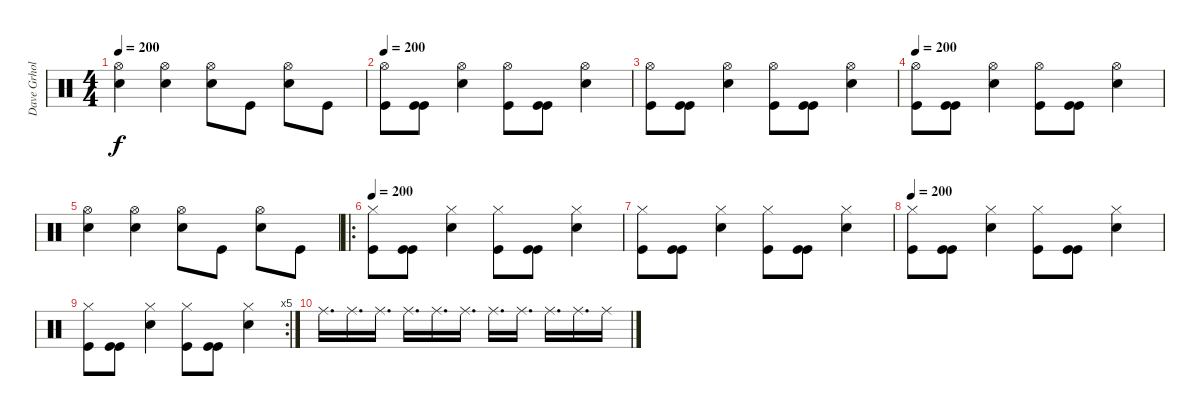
\track ("Dave Grhol" "Dave Grhol") {instrument percussion}
\staff {score}
\articulation defaults
\ts (4 4)
\tempo 200
\clef neutral
\ks c
("Hi-Hat (open)" "Snare (hit) 2").4{dy f} ("Hi-Hat (open)" "Snare (hit) 2").4 ("Hi-Hat (open)" "Snare (hit) 2").8 "Kick (hit)".8 ("Hi-Hat (open)" "Snare (hit) 2").8 "Kick (hit)".8 |
\tempo 200
("Hi-Hat (open)" "Kick (hit)").8 ("Kick (hit)" "Kick (hit)").8 ("Hi-Hat (open)" "Snare (hit) 2").4 ("Hi-Hat (open)" "Kick (hit)").8 ("Kick (hit)" "Kick (hit)").8 ("Hi-Hat (open)" "Snare (hit) 2").4 |
("Hi-Hat (open)" "Kick (hit)").8 ("Kick (hit)" "Kick (hit)").8 ("Hi-Hat (open)" "Snare (hit) 2").4 ("Hi-Hat (open)" "Kick (hit)").8 ("Kick (hit)" "Kick (hit)").8 ("Hi-Hat (open)" "Snare (hit) 2").4 |
\tempo 200
("Hi-Hat (open)" "Kick (hit)").8 ("Kick (hit)" "Kick (hit)").8 ("Hi-Hat (open)" "Snare (hit) 2").4 ("Hi-Hat (open)" "Kick (hit)").8 ("Kick (hit)" "Kick (hit)").8 ("Hi-Hat (open)" "Snare (hit) 2").4 |
("Hi-Hat (open)" "Snare (hit) 2").4 ("Hi-Hat (open)" "Snare (hit) 2").4 ("Hi-Hat (open)" "Snare (hit) 2").8 "Kick (hit)".8 ("Hi-Hat (open)" "Snare (hit) 2").8 "Kick (hit)".8 |
\ro
\tempo 200
("Hi-Hat (closed)" "Kick (hit)").8 ("Kick (hit)" "Kick (hit)").8 ("Hi-Hat (closed)" "Snare (hit) 2").4 ("Hi-Hat (closed)" "Kick (hit)").8 ("Kick (hit)" "Kick (hit)").8 ("Hi-Hat (closed)" "Snare (hit) 2").4 |
("Hi-Hat (closed)" "Kick (hit)").8 ("Kick (hit)" "Kick (hit)").8 ("Hi-Hat (closed)" "Snare (hit) 2").4 ("Hi-Hat (closed)" "Kick (hit)").8 ("Kick (hit)" "Kick (hit)").8 ("Hi-Hat (closed)" "Snare (hit) 2").4 |
\tempo 200
("Hi-Hat (closed)" "Kick (hit)").8 ("Kick (hit)" "Kick (hit)").8 ("Hi-Hat (closed)" "Snare (hit) 2").4 ("Hi-Hat (closed)" "Kick (hit)").8 ("Kick (hit)" "Kick (hit)").8 ("Hi-Hat (closed)" "Snare (hit) 2").4 |
\rc 5
("Hi-Hat (closed)" "Kick (hit)").8 ("Kick (hit)" "Kick (hit)").8 ("Hi-Hat (closed)" "Snare (hit) 2").4 ("Hi-Hat (closed)" "Kick (hit)").8 ("Kick (hit)" "Kick (hit)").8 ("Hi-Hat (closed)" "Snare (hit) 2").4 |
"Ride (middle)".16{d} "Ride (middle)".16{d} "Ride (middle)".16{d} "Ride (middle)".16{d} "Ride (middle)".16{d} "Ride (middle)".16{d} "Ride (middle)".16{d} "Ride (middle)".16{d} "Ride (middle)".16{d} "Ride (middle)".16{d} "Ride (middle)".16
